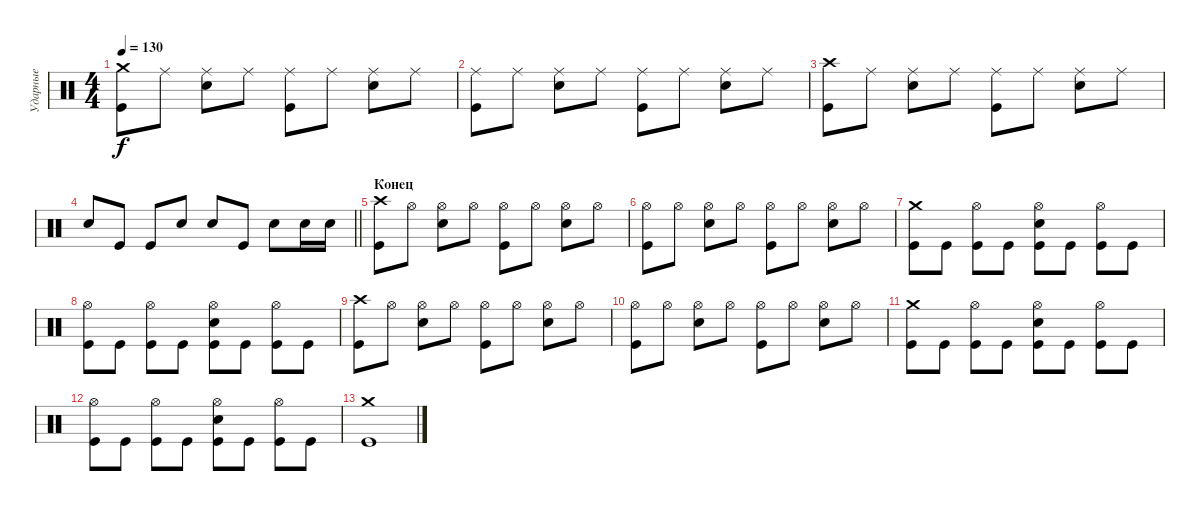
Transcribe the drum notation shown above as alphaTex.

\track ("Ударные" "Ударные") {instrument percussion}
\staff {score}
\articulation defaults
\ts (4 4)
\tempo 130
\clef neutral
\ks c
("Kick (hit)" "Crash medium (hit)").8{dy f} "Ride (middle)".8 ("Snare (hit) 2" "Ride (middle)").8 "Ride (middle)".8 ("Kick (hit)" "Ride (middle)").8 "Ride (middle)".8 ("Snare (hit) 2" "Ride (middle)").8 "Ride (middle)".8 |
("Kick (hit)" "Ride (middle)").8 "Ride (middle)".8 ("Snare (hit) 2" "Ride (middle)").8 "Ride (middle)".8 ("Kick (hit)" "Ride (middle)").8 "Ride (middle)".8 ("Snare (hit) 2" "Ride (middle)").8 "Ride (middle)".8 |
("Kick (hit)" "Crash high (hit)").8 "Ride (middle)".8 ("Snare (hit) 2" "Ride (middle)").8 "Ride (middle)".8 ("Kick (hit)" "Ride (middle)").8 "Ride (middle)".8 ("Snare (hit) 2" "Ride (middle)").8 "Ride (middle)".8 |
\barLineRight lightlight "Snare (hit) 2".8 "Kick (hit)".8 "Kick (hit)".8 "Snare (hit) 2".8 "Snare (hit) 2".8 "Kick (hit)".8 "Snare (hit) 2".8 "Snare (hit) 2".16 "Snare (hit) 2".16
|
\section ("" "Конец")
("Kick (hit)" "Crash high (hit)").8 "Hi-Hat (open)".8 ("Snare (hit) 2" "Hi-Hat (open)").8 "Hi-Hat (open)".8 ("Kick (hit)" "Hi-Hat (open)").8 "Hi-Hat (open)".8 ("Snare (hit) 2" "Hi-Hat (open)").8 "Hi-Hat (open)".8 |
("Kick (hit)" "Hi-Hat (open)").8 "Hi-Hat (open)".8 ("Snare (hit) 2" "Hi-Hat (open)").8 "Hi-Hat (open)".8 ("Kick (hit)" "Hi-Hat (open)").8 "Hi-Hat (open)".8 ("Snare (hit) 2" "Hi-Hat (open)").8 "Hi-Hat (open)".8 |
("Kick (hit)" "Crash medium (hit)").8 "Kick (hit)".8 ("Kick (hit)" "Hi-Hat (open)").8 "Kick (hit)".8 ("Kick (hit)" "Snare (hit) 2" "Hi-Hat (open)").8 "Kick (hit)".8 ("Kick (hit)" "Hi-Hat (open)").8 "Kick (hit)".8 |
("Kick (hit)" "Hi-Hat (open)").8 "Kick (hit)".8 ("Kick (hit)" "Hi-Hat (open)").8 "Kick (hit)".8 ("Kick (hit)" "Snare (hit) 2" "Hi-Hat (open)").8 "Kick (hit)".8 ("Kick (hit)" "Hi-Hat (open)").8 "Kick (hit)".8 |
("Kick (hit)" "Crash high (hit)").8 "Hi-Hat (open)".8 ("Snare (hit) 2" "Hi-Hat (open)").8 "Hi-Hat (open)".8 ("Kick (hit)" "Hi-Hat (open)").8 "Hi-Hat (open)".8 ("Snare (hit) 2" "Hi-Hat (open)").8 "Hi-Hat (open)".8 |
("Kick (hit)" "Hi-Hat (open)").8 "Hi-Hat (open)".8 ("Snare (hit) 2" "Hi-Hat (open)").8 "Hi-Hat (open)".8 ("Kick (hit)" "Hi-Hat (open)").8 "Hi-Hat (open)".8 ("Snare (hit) 2" "Hi-Hat (open)").8 "Hi-Hat (open)".8 |
("Kick (hit)" "Crash medium (hit)").8 "Kick (hit)".8 ("Kick (hit)" "Hi-Hat (open)").8 "Kick (hit)".8 ("Kick (hit)" "Snare (hit) 2" "Hi-Hat (open)").8 "Kick (hit)".8 ("Kick (hit)" "Hi-Hat (open)").8 "Kick (hit)".8 |
("Kick (hit)" "Hi-Hat (open)").8 "Kick (hit)".8 ("Kick (hit)" "Hi-Hat (open)").8 "Kick (hit)".8 ("Kick (hit)" "Snare (hit) 2" "Hi-Hat (open)").8 "Kick (hit)".8 ("Kick (hit)" "Hi-Hat (open)").8 "Kick (hit)".8 |
("Kick (hit)" "Crash medium (hit)").1
